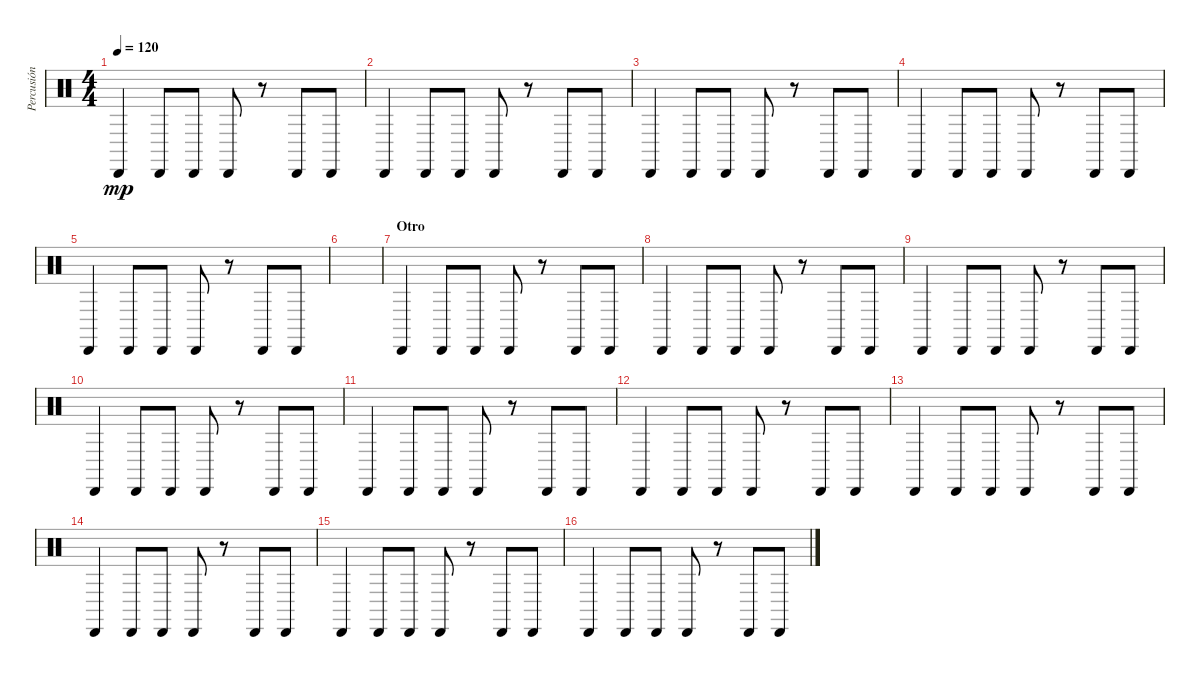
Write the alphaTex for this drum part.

\track ("Percusión" "Percusión") {instrument percussion}
\staff {score}
\articulation defaults
\ts (4 4)
\tempo 120
\clef neutral
\ks c "Cabasa (hit)".4{dy mp} "Cabasa (hit)".8 "Cabasa (hit)".8 "Cabasa (hit)".8
r.8 "Cabasa (hit)".8 "Cabasa (hit)".8 |
"Cabasa (hit)".4 "Cabasa (hit)".8 "Cabasa (hit)".8 "Cabasa (hit)".8 r.8 "Cabasa (hit)".8 "Cabasa (hit)".8 |
"Cabasa (hit)".4 "Cabasa (hit)".8 "Cabasa (hit)".8 "Cabasa (hit)".8 r.8 "Cabasa (hit)".8 "Cabasa (hit)".8 |
"Cabasa (hit)".4 "Cabasa (hit)".8 "Cabasa (hit)".8 "Cabasa (hit)".8 r.8 "Cabasa (hit)".8 "Cabasa (hit)".8 |
"Cabasa (hit)".4 "Cabasa (hit)".8 "Cabasa (hit)".8 "Cabasa (hit)".8 r.8 "Cabasa (hit)".8 "Cabasa (hit)".8 |
|
\section ("" "Otro")
"Cabasa (hit)".4 "Cabasa (hit)".8 "Cabasa (hit)".8 "Cabasa (hit)".8 r.8 "Cabasa (hit)".8 "Cabasa (hit)".8 |
"Cabasa (hit)".4 "Cabasa (hit)".8 "Cabasa (hit)".8 "Cabasa (hit)".8 r.8 "Cabasa (hit)".8 "Cabasa (hit)".8 |
"Cabasa (hit)".4 "Cabasa (hit)".8 "Cabasa (hit)".8 "Cabasa (hit)".8 r.8 "Cabasa (hit)".8 "Cabasa (hit)".8 |
"Cabasa (hit)".4 "Cabasa (hit)".8 "Cabasa (hit)".8 "Cabasa (hit)".8 r.8 "Cabasa (hit)".8 "Cabasa (hit)".8 |
"Cabasa (hit)".4 "Cabasa (hit)".8 "Cabasa (hit)".8 "Cabasa (hit)".8 r.8 "Cabasa (hit)".8 "Cabasa (hit)".8 |
"Cabasa (hit)".4 "Cabasa (hit)".8 "Cabasa (hit)".8 "Cabasa (hit)".8 r.8 "Cabasa (hit)".8 "Cabasa (hit)".8 |
"Cabasa (hit)".4 "Cabasa (hit)".8 "Cabasa (hit)".8 "Cabasa (hit)".8 r.8 "Cabasa (hit)".8 "Cabasa (hit)".8 |
"Cabasa (hit)".4 "Cabasa (hit)".8 "Cabasa (hit)".8 "Cabasa (hit)".8 r.8 "Cabasa (hit)".8 "Cabasa (hit)".8 |
"Cabasa (hit)".4 "Cabasa (hit)".8 "Cabasa (hit)".8 "Cabasa (hit)".8 r.8 "Cabasa (hit)".8 "Cabasa (hit)".8 |
"Cabasa (hit)".4 "Cabasa (hit)".8 "Cabasa (hit)".8 "Cabasa (hit)".8 r.8 "Cabasa (hit)".8 "Cabasa (hit)".8
